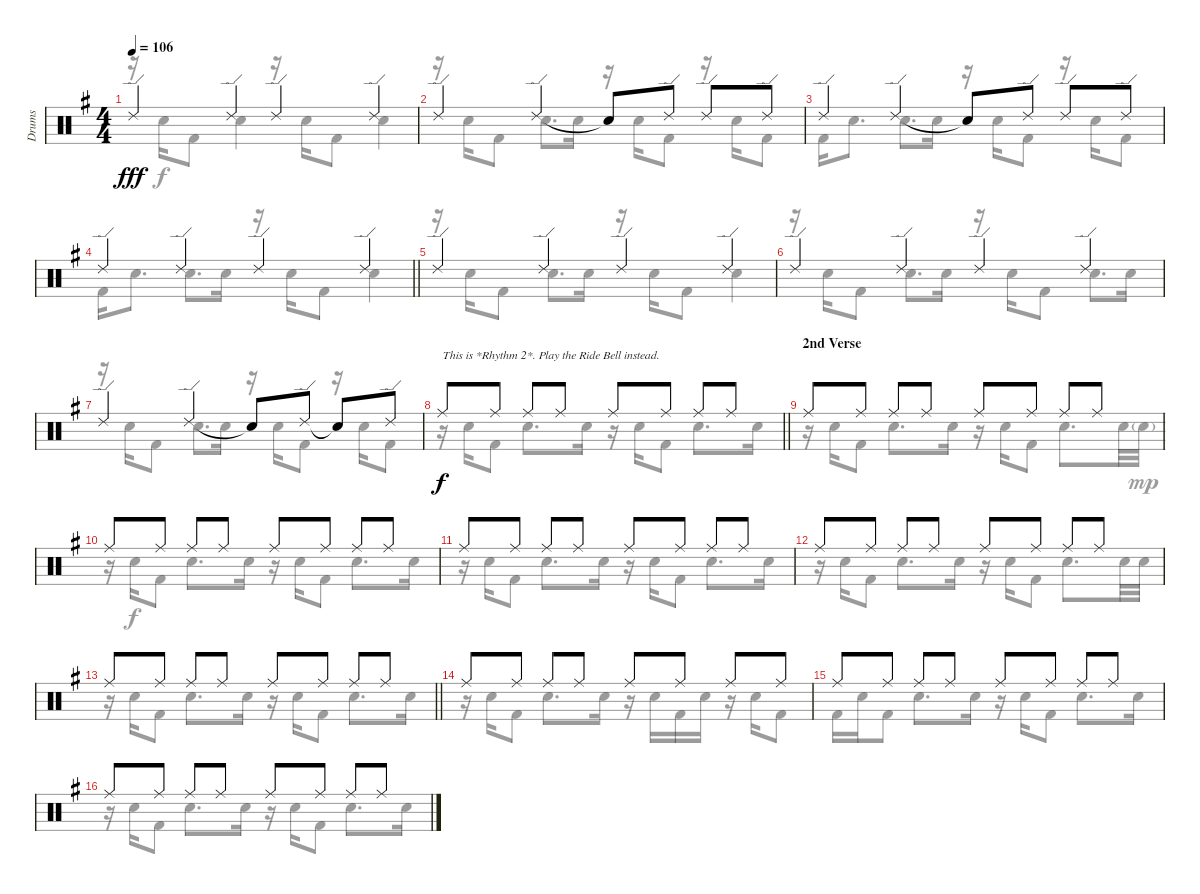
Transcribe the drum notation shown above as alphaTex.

\track ("Drums" "Drums") {instrument percussion}
\staff {score}
\articulation defaults
\voice
\ts (4 4)
\tempo 106
\clef neutral
\ks eminor "Ride (edge) 2".4{dy fff} "Ride (edge) 2".4 "Ride (edge) 2".4 "Ride (edge) 2".4
|
"Ride (edge) 2".4 "Ride (edge) 2".4 "Snare (hit)"{t}.8 "Ride (edge) 2".8 "Ride (edge) 2".8 "Ride (edge) 2".8 |
"Ride (edge) 2".4 "Ride (edge) 2".4 "Snare (hit)"{t}.8 "Ride (edge) 2".8 "Ride (edge) 2".8 "Ride (edge) 2".8 |
\barLineRight lightlight "Ride (edge) 2".4 "Ride (edge) 2".4 "Ride (edge) 2".4 "Ride (edge) 2".4
|
"Ride (edge) 2".4 "Ride (edge) 2".4 "Ride (edge) 2".4 "Ride (edge) 2".4 |
"Ride (edge) 2".4 "Ride (edge) 2".4 "Ride (edge) 2".4 "Ride (edge) 2".4 |
"Ride (edge) 2".4 "Ride (edge) 2".4 "Snare (hit)"{t}.8 "Ride (edge) 2".8 "Snare (hit)"{t}.8 "Ride (edge) 2".8 |
\barLineRight lightlight "Ride (middle)".8{txt "This is *Rhythm 2*. Play the Ride Bell instead." dy f} "Ride (middle)".8 "Ride (middle)".8 "Ride (middle)".8 "Ride (middle)".8 "Ride (middle)".8 "Ride (middle)".8 "Ride (middle)".8
|
\section ("" "2nd Verse")
"Ride (middle)".8 "Ride (middle)".8 "Ride (middle)".8 "Ride (middle)".8 "Ride (middle)".8 "Ride (middle)".8 "Ride (middle)".8 "Ride (middle)".8 |
"Ride (middle)".8 "Ride (middle)".8 "Ride (middle)".8 "Ride (middle)".8 "Ride (middle)".8 "Ride (middle)".8 "Ride (middle)".8 "Ride (middle)".8 |
"Ride (middle)".8 "Ride (middle)".8 "Ride (middle)".8 "Ride (middle)".8 "Ride (middle)".8 "Ride (middle)".8 "Ride (middle)".8 "Ride (middle)".8 |
"Ride (middle)".8 "Ride (middle)".8 "Ride (middle)".8 "Ride (middle)".8 "Ride (middle)".8 "Ride (middle)".8 "Ride (middle)".8 "Ride (middle)".8 |
\barLineRight lightlight "Ride (middle)".8 "Ride (middle)".8 "Ride (middle)".8 "Ride (middle)".8 "Ride (middle)".8 "Ride (middle)".8 "Ride (middle)".8 "Ride (middle)".8
|
"Ride (middle)".8 "Ride (middle)".8 "Ride (middle)".8 "Ride (middle)".8 "Ride (middle)".8 "Ride (middle)".8 "Ride (middle)".8 "Ride (middle)".8 |
"Ride (middle)".8 "Ride (middle)".8 "Ride (middle)".8 "Ride (middle)".8 "Ride (middle)".8 "Ride (middle)".8 "Ride (middle)".8 "Ride (middle)".8 |
"Ride (middle)".8 "Ride (middle)".8 "Ride (middle)".8 "Ride (middle)".8 "Ride (middle)".8 "Ride (middle)".8 "Ride (middle)".8 "Ride (middle)".8
\voice
\clef neutral
\ottava regular
\simile none
\ks eminor
r.16{dy fff} "Electric Snare (hit)".16{dy f} "Kick (hit) 2".8 "Electric Snare (hit)".4 r.16 "Electric Snare (hit)".16 "Kick (hit) 2".8 "Electric Snare (hit)".4 |
r.16 "Electric Snare (hit)".16 "Kick (hit) 2".8 "Electric Snare (hit)".8{d} "Electric Snare (hit)".16 r.16 "Electric Snare (hit)".16 "Kick (hit) 2".8 r.16 "Electric Snare (hit)".16 "Kick (hit) 2".8 |
"Kick (hit) 2".16 "Electric Snare (hit)".8{d} "Electric Snare (hit)".8{d} "Electric Snare (hit)".16 r.16 "Electric Snare (hit)".16 "Kick (hit) 2".8 r.16 "Electric Snare (hit)".16 "Kick (hit) 2".8 |
\barLineRight lightlight "Kick (hit) 2".16 "Electric Snare (hit)".8{d} "Electric Snare (hit)".8{d} "Electric Snare (hit)".16
r.16 "Electric Snare (hit)".16 "Kick (hit) 2".8 "Electric Snare (hit)".4 |
r.16 "Electric Snare (hit)".16 "Kick (hit) 2".8 "Electric Snare (hit)".8{d} "Electric Snare (hit)".16 r.16 "Electric Snare (hit)".16 "Kick (hit) 2".8 "Electric Snare (hit)".4 |
r.16 "Electric Snare (hit)".16 "Kick (hit) 2".8 "Electric Snare (hit)".8{d} "Electric Snare (hit)".16 r.16 "Electric Snare (hit)".16 "Kick (hit) 2".8 "Electric Snare (hit)".8{d} "Electric Snare (hit)".16 |
r.16 "Electric Snare (hit)".16 "Kick (hit) 2".8 "Electric Snare (hit)".8{d} "Electric Snare (hit)".16 r.16 "Electric Snare (hit)".16 "Kick (hit) 2".8 r.16 "Electric Snare (hit)".16 "Kick (hit) 2".8 |
\barLineRight lightlight
r.16 "Electric Snare (hit)".16 "Kick (hit) 2".8 "Electric Snare (hit)".8{d} "Electric Snare (hit)".16 r.16 "Electric Snare (hit)".16 "Kick (hit) 2".8 "Electric Snare (hit)".8{d} "Electric Snare (hit)".16 |
r.16 "Electric Snare (hit)".16 "Kick (hit) 2".8 "Electric Snare (hit)".8{d} "Electric Snare (hit)".16 r.16 "Electric Snare (hit)".16 "Kick (hit) 2".8 "Electric Snare (hit)".8{d} "Electric Snare (hit)".32 "Electric Snare (hit)"{g}.32{dy mp} |
r.16 "Electric Snare (hit)".16{dy f} "Kick (hit) 2".8 "Electric Snare (hit)".8{d} "Electric Snare (hit)".16 r.16 "Electric Snare (hit)".16 "Kick (hit) 2".8 "Electric Snare (hit)".8{d} "Electric Snare (hit)".16 |
r.16 "Electric Snare (hit)".16 "Kick (hit) 2".8 "Electric Snare (hit)".8{d} "Electric Snare (hit)".16 r.16 "Electric Snare (hit)".16 "Kick (hit) 2".8 "Electric Snare (hit)".8{d} "Electric Snare (hit)".16 |
r.16 "Electric Snare (hit)".16 "Kick (hit) 2".8 "Electric Snare (hit)".8{d} "Electric Snare (hit)".16 r.16 "Electric Snare (hit)".16 "Kick (hit) 2".8 "Electric Snare (hit)".8{d} "Electric Snare (hit)".32 "Electric Snare (hit)".32 |
\barLineRight lightlight
r.16 "Electric Snare (hit)".16 "Kick (hit) 2".8 "Electric Snare (hit)".8{d} "Electric Snare (hit)".16 r.16 "Electric Snare (hit)".16 "Kick (hit) 2".8 "Electric Snare (hit)".8{d} "Electric Snare (hit)".16 |
r.16 "Electric Snare (hit)".16 "Kick (hit) 2".8 "Electric Snare (hit)".8{d} "Electric Snare (hit)".16 r.16 "Electric Snare (hit)".16 "Kick (hit) 2".16 "Electric Snare (hit)".16 r.16 "Electric Snare (hit)".16 "Kick (hit) 2".8 |
"Kick (hit) 2".16 "Electric Snare (hit)".16 "Kick (hit) 2".8 "Electric Snare (hit)".8{d} "Electric Snare (hit)".16 r.16 "Electric Snare (hit)".16 "Kick (hit) 2".8 "Electric Snare (hit)".8{d} "Electric Snare (hit)".16 |
r.16 "Electric Snare (hit)".16 "Kick (hit) 2".8 "Electric Snare (hit)".8{d} "Electric Snare (hit)".16 r.16 "Electric Snare (hit)".16 "Kick (hit) 2".8 "Electric Snare (hit)".8{d} "Electric Snare (hit)".16
